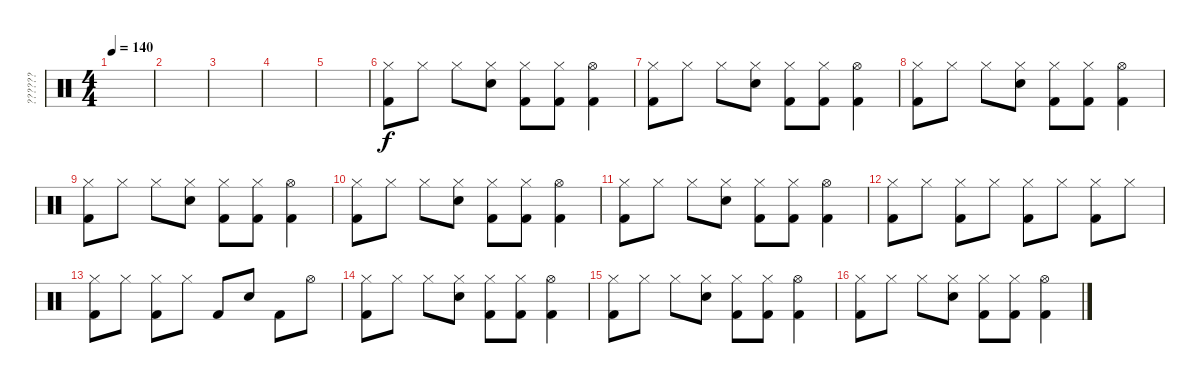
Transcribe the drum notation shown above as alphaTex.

\track ("??????" "??????") {instrument percussion}
\staff {score}
\articulation defaults
\ts (4 4)
\tempo 140
\clef neutral
\ks c
|
|
|
|
|
("Hi-Hat (closed)" "Kick (hit) 2").8 "Hi-Hat (closed)".8 "Hi-Hat (closed)".8 ("Hi-Hat (closed)" "Snare (hit) 2").8 ("Hi-Hat (closed)" "Kick (hit) 2").8 ("Hi-Hat (closed)" "Kick (hit) 2").8 ("Hi-Hat (open)" "Kick (hit) 2").4 |
("Hi-Hat (closed)" "Kick (hit) 2").8 "Hi-Hat (closed)".8 "Hi-Hat (closed)".8 ("Hi-Hat (closed)" "Snare (hit) 2").8 ("Hi-Hat (closed)" "Kick (hit) 2").8 ("Hi-Hat (closed)" "Kick (hit) 2").8 ("Hi-Hat (open)" "Kick (hit) 2").4 |
("Hi-Hat (closed)" "Kick (hit) 2").8 "Hi-Hat (closed)".8 "Hi-Hat (closed)".8 ("Hi-Hat (closed)" "Snare (hit) 2").8 ("Hi-Hat (closed)" "Kick (hit) 2").8 ("Hi-Hat (closed)" "Kick (hit) 2").8 ("Hi-Hat (open)" "Kick (hit) 2").4 |
("Hi-Hat (closed)" "Kick (hit) 2").8 "Hi-Hat (closed)".8 "Hi-Hat (closed)".8 ("Hi-Hat (closed)" "Snare (hit) 2").8 ("Hi-Hat (closed)" "Kick (hit) 2").8 ("Hi-Hat (closed)" "Kick (hit) 2").8 ("Hi-Hat (open)" "Kick (hit) 2").4 |
("Hi-Hat (closed)" "Kick (hit) 2").8 "Hi-Hat (closed)".8 "Hi-Hat (closed)".8 ("Hi-Hat (closed)" "Snare (hit) 2").8 ("Hi-Hat (closed)" "Kick (hit) 2").8 ("Hi-Hat (closed)" "Kick (hit) 2").8 ("Hi-Hat (open)" "Kick (hit) 2").4 |
("Hi-Hat (closed)" "Kick (hit) 2").8 "Hi-Hat (closed)".8 "Hi-Hat (closed)".8 ("Hi-Hat (closed)" "Snare (hit) 2").8 ("Hi-Hat (closed)" "Kick (hit) 2").8 ("Hi-Hat (closed)" "Kick (hit) 2").8 ("Hi-Hat (open)" "Kick (hit) 2").4 |
("Hi-Hat (closed)" "Kick (hit) 2").8 "Hi-Hat (closed)".8 ("Hi-Hat (closed)" "Kick (hit) 2").8 "Hi-Hat (closed)".8 ("Hi-Hat (closed)" "Kick (hit) 2").8 "Hi-Hat (closed)".8 ("Hi-Hat (closed)" "Kick (hit) 2").8 "Hi-Hat (closed)".8 |
("Hi-Hat (closed)" "Kick (hit) 2").8 "Hi-Hat (closed)".8 ("Hi-Hat (closed)" "Kick (hit) 2").8 "Hi-Hat (closed)".8 "Kick (hit) 2".8 "Snare (hit) 2".8 "Kick (hit) 2".8 "Hi-Hat (open)".8 |
("Hi-Hat (closed)" "Kick (hit) 2").8 "Hi-Hat (closed)".8 "Hi-Hat (closed)".8 ("Hi-Hat (closed)" "Snare (hit) 2").8 ("Hi-Hat (closed)" "Kick (hit) 2").8 ("Hi-Hat (closed)" "Kick (hit) 2").8 ("Hi-Hat (open)" "Kick (hit) 2").4 |
("Hi-Hat (closed)" "Kick (hit) 2").8 "Hi-Hat (closed)".8 "Hi-Hat (closed)".8 ("Hi-Hat (closed)" "Snare (hit) 2").8 ("Hi-Hat (closed)" "Kick (hit) 2").8 ("Hi-Hat (closed)" "Kick (hit) 2").8 ("Hi-Hat (open)" "Kick (hit) 2").4 |
("Hi-Hat (closed)" "Kick (hit) 2").8 "Hi-Hat (closed)".8 "Hi-Hat (closed)".8 ("Hi-Hat (closed)" "Snare (hit) 2").8 ("Hi-Hat (closed)" "Kick (hit) 2").8 ("Hi-Hat (closed)" "Kick (hit) 2").8 ("Hi-Hat (open)" "Kick (hit) 2").4
